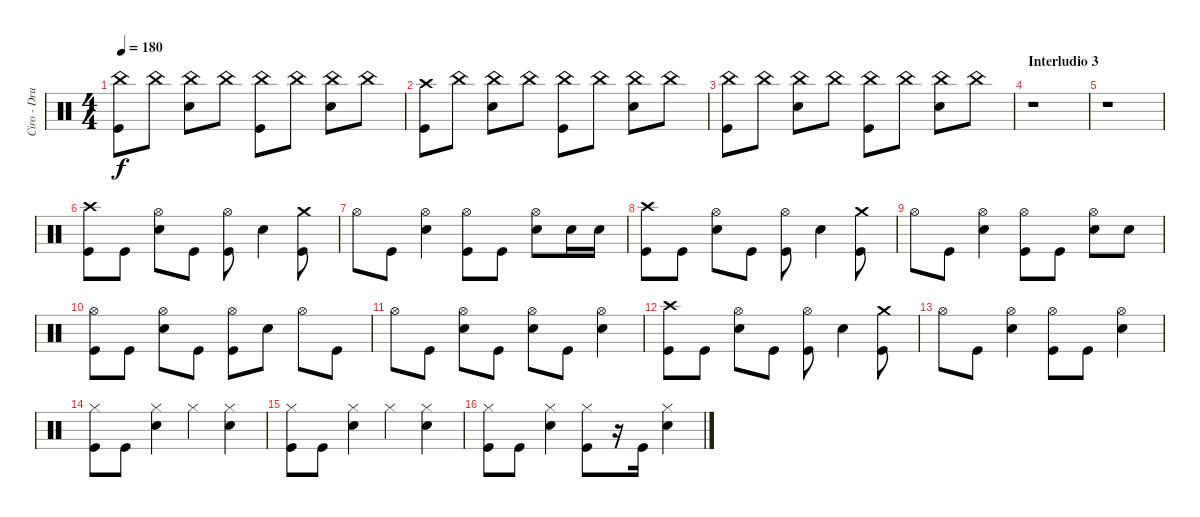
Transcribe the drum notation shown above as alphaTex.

\track ("Ciro - Drums" "Ciro - Dru") {instrument percussion}
\staff {score}
\articulation defaults
\ts (4 4)
\tempo 180
\clef neutral
\ks c
("China (hit)" "Kick (hit)").8{dy f} "China (hit)".8 ("China (hit)" "Electric Snare (hit)").8 "China (hit)".8 ("China (hit)" "Kick (hit)").8 "China (hit)".8 ("China (hit)" "Electric Snare (hit)").8 "China (hit)".8 |
("Crash high (hit)" "Kick (hit)").8 "China (hit)".8 ("China (hit)" "Electric Snare (hit)").8 "China (hit)".8 ("China (hit)" "Kick (hit)").8 "China (hit)".8 ("China (hit)" "Electric Snare (hit)").8 "China (hit)".8 |
("China (hit)" "Kick (hit)").8 "China (hit)".8 ("China (hit)" "Electric Snare (hit)").8 "China (hit)".8 ("China (hit)" "Kick (hit)").8 "China (hit)".8 ("China (hit)" "Electric Snare (hit)").8 "China (hit)".8 |
\section ("" "Interludio 3")
r.1 |
r.1 |
("Crash high (hit)" "Kick (hit)").8 "Kick (hit)".8 ("Hi-Hat (open)" "Electric Snare (hit)").8 "Kick (hit)".8 ("Hi-Hat (open)" "Kick (hit)").8 "Electric Snare (hit)".4 ("Crash medium (hit)" "Kick (hit)").8 |
"Hi-Hat (open)".8 "Kick (hit)".8 ("Hi-Hat (open)" "Electric Snare (hit)").4 ("Hi-Hat (open)" "Kick (hit)").8 "Kick (hit)".8 ("Hi-Hat (open)" "Electric Snare (hit)").8 "Electric Snare (hit)".16 "Electric Snare (hit)".16 |
("Crash high (hit)" "Kick (hit)").8 "Kick (hit)".8 ("Hi-Hat (open)" "Electric Snare (hit)").8 "Kick (hit)".8 ("Hi-Hat (open)" "Kick (hit)").8 "Electric Snare (hit)".4 ("Crash medium (hit)" "Kick (hit)").8 |
"Hi-Hat (open)".8 "Kick (hit)".8 ("Hi-Hat (open)" "Electric Snare (hit)").4 ("Hi-Hat (open)" "Kick (hit)").8 "Kick (hit)".8 ("Hi-Hat (open)" "Electric Snare (hit)").8 "Electric Snare (hit)".8 |
("Hi-Hat (open)" "Kick (hit)").8 "Kick (hit)".8 ("Hi-Hat (open)" "Electric Snare (hit)").8 "Kick (hit)".8 ("Hi-Hat (open)" "Kick (hit)").8 "Electric Snare (hit)".8 "Hi-Hat (open)".8 "Kick (hit)".8 |
"Hi-Hat (open)".8 "Kick (hit)".8 ("Hi-Hat (open)" "Electric Snare (hit)").8 "Kick (hit)".8 ("Hi-Hat (open)" "Electric Snare (hit)").8 "Kick (hit)".8 ("Hi-Hat (open)" "Electric Snare (hit)").4 |
("Crash high (hit)" "Kick (hit)").8 "Kick (hit)".8 ("Hi-Hat (open)" "Electric Snare (hit)").8 "Kick (hit)".8 ("Hi-Hat (open)" "Kick (hit)").8 "Electric Snare (hit)".4 ("Crash medium (hit)" "Kick (hit)").8 |
"Hi-Hat (open)".8 "Kick (hit)".8 ("Hi-Hat (open)" "Electric Snare (hit)").4 ("Hi-Hat (open)" "Kick (hit)").8 "Kick (hit)".8 ("Hi-Hat (open)" "Electric Snare (hit)").4 |
("Hi-Hat (closed)" "Kick (hit)").8 "Kick (hit)".8 ("Hi-Hat (closed)" "Electric Snare (hit)").4 "Hi-Hat (closed)".4 ("Hi-Hat (closed)" "Electric Snare (hit)").4 |
("Hi-Hat (closed)" "Kick (hit)").8 "Kick (hit)".8 ("Hi-Hat (closed)" "Electric Snare (hit)").4 "Hi-Hat (closed)".4 ("Hi-Hat (closed)" "Electric Snare (hit)").4 |
("Hi-Hat (closed)" "Kick (hit)").8 "Kick (hit)".8 ("Hi-Hat (closed)" "Electric Snare (hit)").4 ("Hi-Hat (closed)" "Kick (hit)").8 r.16 "Kick (hit)".16 ("Hi-Hat (closed)" "Electric Snare (hit)").4
